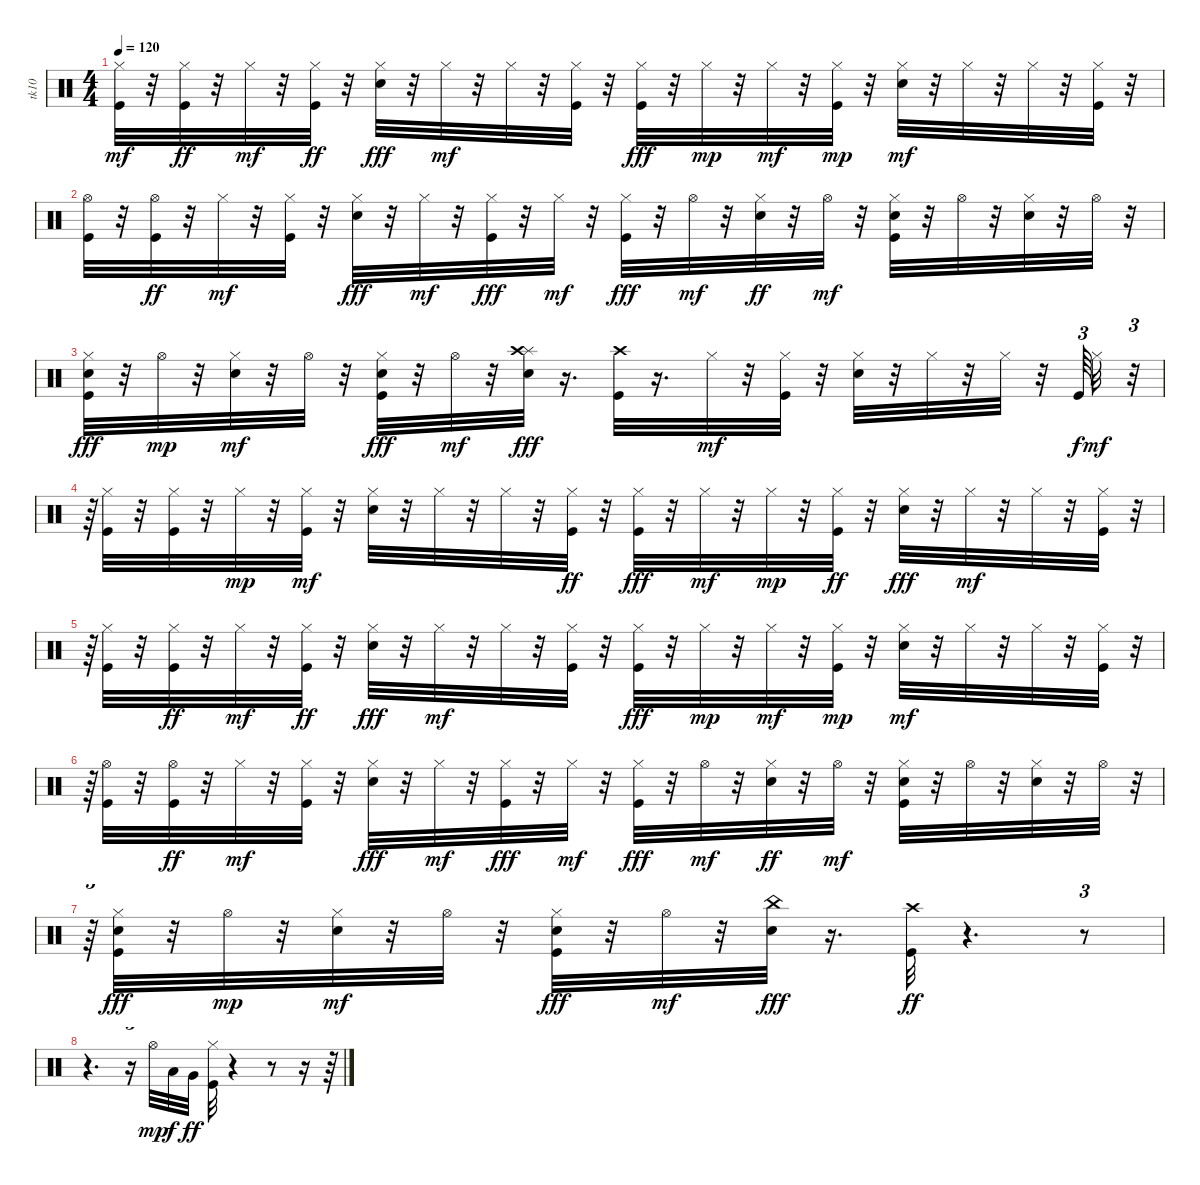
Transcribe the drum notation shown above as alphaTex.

\track ("tk10" "tk10") {instrument percussion}
\staff {score}
\articulation defaults
\ts (4 4)
\tempo 120
\clef neutral
\ks c
("Kick (hit)" "Hi-Hat (closed)").32{dy mf} r.32 ("Hi-Hat (closed)" "Kick (hit)").32{dy ff} r.32 "Hi-Hat (closed)".32{dy mf} r.32 ("Hi-Hat (closed)" "Kick (hit)").32{dy ff} r.32 ("Hi-Hat (closed)" "Snare (hit) 2").32{dy fff} r.32 "Hi-Hat (closed)".32{dy mf} r.32 "Hi-Hat (closed)".32 r.32 ("Hi-Hat (closed)" "Kick (hit)").32 r.32 ("Hi-Hat (closed)" "Kick (hit)").32{dy fff} r.32 "Hi-Hat (closed)".32{dy mp} r.32 "Hi-Hat (closed)".32{dy mf} r.32 ("Kick (hit)" "Hi-Hat (closed)").32{dy mp} r.32 ("Snare (hit) 2" "Hi-Hat (closed)").32{dy mf} r.32 "Hi-Hat (closed)".32 r.32 "Hi-Hat (closed)".32 r.32 ("Kick (hit)" "Hi-Hat (closed)").32 r.32 |
("Kick (hit)" "Hi-Hat (open)").32 r.32 ("Hi-Hat (open)" "Kick (hit)").32{dy ff} r.32 "Hi-Hat (closed)".32{dy mf} r.32 ("Kick (hit)" "Hi-Hat (closed)").32 r.32 ("Hi-Hat (closed)" "Snare (hit) 2").32{dy fff} r.32 "Hi-Hat (closed)".32{dy mf} r.32 ("Hi-Hat (closed)" "Kick (hit)").32{dy fff} r.32 "Hi-Hat (closed)".32{dy mf} r.32 ("Hi-Hat (closed)" "Kick (hit)").32{dy fff} r.32 "Hi-Hat (open)".32{dy mf} r.32 ("Hi-Hat (closed)" "Snare (hit) 2").32{dy ff} r.32 "Hi-Hat (open)".32{dy mf} r.32 ("Kick (hit)" "Snare (hit) 2" "Hi-Hat (closed)").32 r.32 "Hi-Hat (open)".32 r.32 ("Snare (hit) 2" "Hi-Hat (closed)").32 r.32 "Hi-Hat (open)".32 r.32 |
("Hi-Hat (closed)" "Kick (hit)" "Snare (hit) 2").32{dy fff} r.32 "Hi-Hat (open)".32{dy mp} r.32 ("Snare (hit) 2" "Hi-Hat (closed)").32{dy mf} r.32 "Hi-Hat (open)".32 r.32 ("Hi-Hat (closed)" "Kick (hit)" "Snare (hit) 2").32{dy fff} r.32 "Hi-Hat (open)".32{dy mf} r.32 ("Splash (hit)" "Crash high (hit)" "Snare (hit) 2").32{dy fff} r.16{d} ("Crash high (hit)" "Kick (hit)").32 r.16{d} "Hi-Hat (closed)".32{dy mf} r.32 ("Kick (hit)" "Hi-Hat (closed)").32 r.32 ("Snare (hit) 2" "Hi-Hat (closed)").32 r.32 "Hi-Hat (closed)".32 r.32 "Hi-Hat (closed)".32 r.32 "Kick (hit)".64{tu (3 2) dy f} "Hi-Hat (closed)".32{dy mf} r.32{tu (3 2)} |
r.64{tu (3 2)} ("Kick (hit)" "Hi-Hat (closed)").32 r.32 ("Kick (hit)" "Hi-Hat (closed)").32 r.32 "Hi-Hat (closed)".32{dy mp} r.32 ("Kick (hit)" "Hi-Hat (closed)").32{dy mf} r.32 ("Snare (hit) 2" "Hi-Hat (closed)").32 r.32 "Hi-Hat (closed)".32 r.32 "Hi-Hat (closed)".32 r.32 ("Hi-Hat (closed)" "Kick (hit)").32{dy ff} r.32 ("Hi-Hat (closed)" "Kick (hit)").32{dy fff} r.32 "Hi-Hat (closed)".32{dy mf} r.32 "Hi-Hat (closed)".32{dy mp} r.32 ("Hi-Hat (closed)" "Kick (hit)").32{dy ff} r.32 ("Hi-Hat (closed)" "Snare (hit) 2").32{dy fff} r.32 "Hi-Hat (closed)".32{dy mf} r.32 "Hi-Hat (closed)".32 r.32 ("Kick (hit)" "Hi-Hat (closed)").32 r.32{tu (3 2)} |
r.64{tu (3 2)} ("Kick (hit)" "Hi-Hat (closed)").32 r.32 ("Hi-Hat (closed)" "Kick (hit)").32{dy ff} r.32 "Hi-Hat (closed)".32{dy mf} r.32 ("Hi-Hat (closed)" "Kick (hit)").32{dy ff} r.32 ("Hi-Hat (closed)" "Snare (hit) 2").32{dy fff} r.32 "Hi-Hat (closed)".32{dy mf} r.32 "Hi-Hat (closed)".32 r.32 ("Hi-Hat (closed)" "Kick (hit)").32 r.32 ("Hi-Hat (closed)" "Kick (hit)").32{dy fff} r.32 "Hi-Hat (closed)".32{dy mp} r.32 "Hi-Hat (closed)".32{dy mf} r.32 ("Kick (hit)" "Hi-Hat (closed)").32{dy mp} r.32 ("Snare (hit) 2" "Hi-Hat (closed)").32{dy mf} r.32 "Hi-Hat (closed)".32 r.32 "Hi-Hat (closed)".32 r.32 ("Kick (hit)" "Hi-Hat (closed)").32 r.32{tu (3 2)} |
r.64{tu (3 2)} ("Kick (hit)" "Hi-Hat (open)").32 r.32 ("Hi-Hat (open)" "Kick (hit)").32{dy ff} r.32 "Hi-Hat (closed)".32{dy mf} r.32 ("Kick (hit)" "Hi-Hat (closed)").32 r.32 ("Hi-Hat (closed)" "Snare (hit) 2").32{dy fff} r.32 "Hi-Hat (closed)".32{dy mf} r.32 ("Hi-Hat (closed)" "Kick (hit)").32{dy fff} r.32 "Hi-Hat (closed)".32{dy mf} r.32 ("Hi-Hat (closed)" "Kick (hit)").32{dy fff} r.32 "Hi-Hat (open)".32{dy mf} r.32 ("Hi-Hat (closed)" "Snare (hit) 2").32{dy ff} r.32 "Hi-Hat (open)".32{dy mf} r.32 ("Kick (hit)" "Snare (hit) 2" "Hi-Hat (closed)").32 r.32 "Hi-Hat (open)".32 r.32 ("Snare (hit) 2" "Hi-Hat (closed)").32 r.32 "Hi-Hat (open)".32 r.32{tu (3 2)} |
r.64{tu (3 2)} ("Hi-Hat (closed)" "Kick (hit)" "Snare (hit) 2").32{dy fff} r.32 "Hi-Hat (open)".32{dy mp} r.32 ("Snare (hit) 2" "Hi-Hat (closed)").32{dy mf} r.32 "Hi-Hat (open)".32 r.32 ("Hi-Hat (closed)" "Kick (hit)" "Snare (hit) 2").32{dy fff} r.32 "Hi-Hat (open)".32{dy mf} r.32 ("China (hit)" "Snare (hit) 2").32{dy fff} r.16{d} ("Kick (hit)" "Crash high (hit)").32{dy ff} r.4{d} r.8{tu (3 2)} |
r.4{d} r.16{tu (3 2)} "Hi-Hat (open)".32{dy mp} "Low Tom (hit)".32{dy f} "Very Low Tom (hit)".32{dy ff} ("Hi-Hat (closed)" "Kick (hit)").32 r.4 r.8 r.16 r.64
